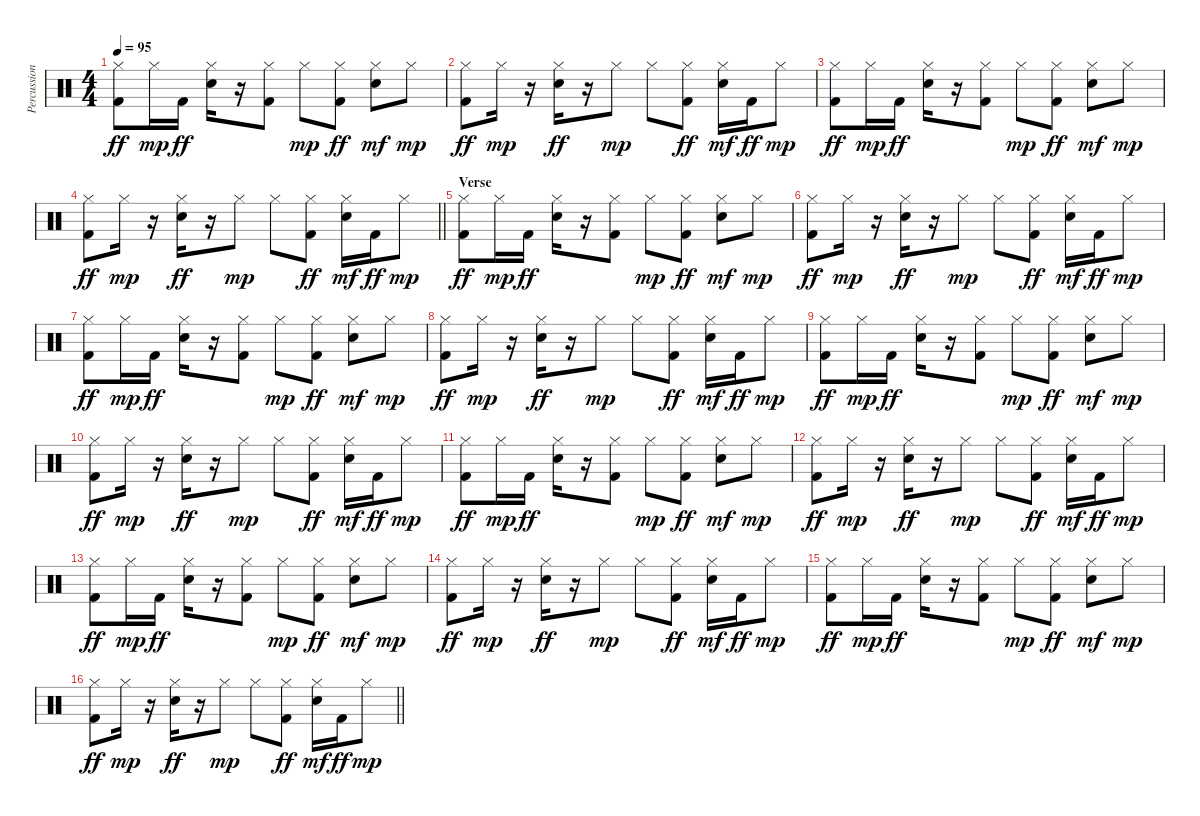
\track ("Percussion" "Percussion") {instrument percussion}
\staff {score}
\articulation defaults
\ts (4 4)
\tempo 95
\clef neutral
\ks c
("Hi-Hat (closed)" "Kick (hit) 2").8{dy ff} "Hi-Hat (closed)".16{dy mp} "Kick (hit) 2".16{dy ff} ("Hi-Hat (closed)" "Snare (hit) 2").16 r.16 ("Hi-Hat (closed)" "Kick (hit) 2").8 "Hi-Hat (closed)".8{dy mp} ("Hi-Hat (closed)" "Kick (hit) 2").8{dy ff} ("Hi-Hat (closed)" "Snare (hit) 2").8{dy mf} "Hi-Hat (closed)".8{dy mp} |
("Hi-Hat (closed)" "Kick (hit) 2").8{dy ff} "Hi-Hat (closed)".16{dy mp} r.16 ("Hi-Hat (closed)" "Snare (hit) 2").16{dy ff} r.16 "Hi-Hat (closed)".8{dy mp} "Hi-Hat (closed)".8 ("Hi-Hat (closed)" "Kick (hit) 2").8{dy ff} ("Hi-Hat (closed)" "Snare (hit) 2").16{dy mf} "Kick (hit) 2".16{dy ff} "Hi-Hat (closed)".8{dy mp} |
("Hi-Hat (closed)" "Kick (hit) 2").8{dy ff} "Hi-Hat (closed)".16{dy mp} "Kick (hit) 2".16{dy ff} ("Hi-Hat (closed)" "Snare (hit) 2").16 r.16 ("Hi-Hat (closed)" "Kick (hit) 2").8 "Hi-Hat (closed)".8{dy mp} ("Hi-Hat (closed)" "Kick (hit) 2").8{dy ff} ("Hi-Hat (closed)" "Snare (hit) 2").8{dy mf} "Hi-Hat (closed)".8{dy mp} |
\barLineRight lightlight
("Hi-Hat (closed)" "Kick (hit) 2").8{dy ff} "Hi-Hat (closed)".16{dy mp} r.16 ("Hi-Hat (closed)" "Snare (hit) 2").16{dy ff} r.16 "Hi-Hat (closed)".8{dy mp} "Hi-Hat (closed)".8 ("Hi-Hat (closed)" "Kick (hit) 2").8{dy ff} ("Hi-Hat (closed)" "Snare (hit) 2").16{dy mf} "Kick (hit) 2".16{dy ff} "Hi-Hat (closed)".8{dy mp} |
\section ("" "Verse")
("Hi-Hat (closed)" "Kick (hit) 2").8{dy ff} "Hi-Hat (closed)".16{dy mp} "Kick (hit) 2".16{dy ff} ("Hi-Hat (closed)" "Snare (hit) 2").16 r.16 ("Hi-Hat (closed)" "Kick (hit) 2").8 "Hi-Hat (closed)".8{dy mp} ("Hi-Hat (closed)" "Kick (hit) 2").8{dy ff} ("Hi-Hat (closed)" "Snare (hit) 2").8{dy mf} "Hi-Hat (closed)".8{dy mp} |
("Hi-Hat (closed)" "Kick (hit) 2").8{dy ff} "Hi-Hat (closed)".16{dy mp} r.16 ("Hi-Hat (closed)" "Snare (hit) 2").16{dy ff} r.16 "Hi-Hat (closed)".8{dy mp} "Hi-Hat (closed)".8 ("Hi-Hat (closed)" "Kick (hit) 2").8{dy ff} ("Hi-Hat (closed)" "Snare (hit) 2").16{dy mf} "Kick (hit) 2".16{dy ff} "Hi-Hat (closed)".8{dy mp} |
("Hi-Hat (closed)" "Kick (hit) 2").8{dy ff} "Hi-Hat (closed)".16{dy mp} "Kick (hit) 2".16{dy ff} ("Hi-Hat (closed)" "Snare (hit) 2").16 r.16 ("Hi-Hat (closed)" "Kick (hit) 2").8 "Hi-Hat (closed)".8{dy mp} ("Hi-Hat (closed)" "Kick (hit) 2").8{dy ff} ("Hi-Hat (closed)" "Snare (hit) 2").8{dy mf} "Hi-Hat (closed)".8{dy mp} |
("Hi-Hat (closed)" "Kick (hit) 2").8{dy ff} "Hi-Hat (closed)".16{dy mp} r.16 ("Hi-Hat (closed)" "Snare (hit) 2").16{dy ff} r.16 "Hi-Hat (closed)".8{dy mp} "Hi-Hat (closed)".8 ("Hi-Hat (closed)" "Kick (hit) 2").8{dy ff} ("Hi-Hat (closed)" "Snare (hit) 2").16{dy mf} "Kick (hit) 2".16{dy ff} "Hi-Hat (closed)".8{dy mp} |
("Hi-Hat (closed)" "Kick (hit) 2").8{dy ff} "Hi-Hat (closed)".16{dy mp} "Kick (hit) 2".16{dy ff} ("Hi-Hat (closed)" "Snare (hit) 2").16 r.16 ("Hi-Hat (closed)" "Kick (hit) 2").8 "Hi-Hat (closed)".8{dy mp} ("Hi-Hat (closed)" "Kick (hit) 2").8{dy ff} ("Hi-Hat (closed)" "Snare (hit) 2").8{dy mf} "Hi-Hat (closed)".8{dy mp} |
("Hi-Hat (closed)" "Kick (hit) 2").8{dy ff} "Hi-Hat (closed)".16{dy mp} r.16 ("Hi-Hat (closed)" "Snare (hit) 2").16{dy ff} r.16 "Hi-Hat (closed)".8{dy mp} "Hi-Hat (closed)".8 ("Hi-Hat (closed)" "Kick (hit) 2").8{dy ff} ("Hi-Hat (closed)" "Snare (hit) 2").16{dy mf} "Kick (hit) 2".16{dy ff} "Hi-Hat (closed)".8{dy mp} |
("Hi-Hat (closed)" "Kick (hit) 2").8{dy ff} "Hi-Hat (closed)".16{dy mp} "Kick (hit) 2".16{dy ff} ("Hi-Hat (closed)" "Snare (hit) 2").16 r.16 ("Hi-Hat (closed)" "Kick (hit) 2").8 "Hi-Hat (closed)".8{dy mp} ("Hi-Hat (closed)" "Kick (hit) 2").8{dy ff} ("Hi-Hat (closed)" "Snare (hit) 2").8{dy mf} "Hi-Hat (closed)".8{dy mp} |
("Hi-Hat (closed)" "Kick (hit) 2").8{dy ff} "Hi-Hat (closed)".16{dy mp} r.16 ("Hi-Hat (closed)" "Snare (hit) 2").16{dy ff} r.16 "Hi-Hat (closed)".8{dy mp} "Hi-Hat (closed)".8 ("Hi-Hat (closed)" "Kick (hit) 2").8{dy ff} ("Hi-Hat (closed)" "Snare (hit) 2").16{dy mf} "Kick (hit) 2".16{dy ff} "Hi-Hat (closed)".8{dy mp} |
("Hi-Hat (closed)" "Kick (hit) 2").8{dy ff} "Hi-Hat (closed)".16{dy mp} "Kick (hit) 2".16{dy ff} ("Hi-Hat (closed)" "Snare (hit) 2").16 r.16 ("Hi-Hat (closed)" "Kick (hit) 2").8 "Hi-Hat (closed)".8{dy mp} ("Hi-Hat (closed)" "Kick (hit) 2").8{dy ff} ("Hi-Hat (closed)" "Snare (hit) 2").8{dy mf} "Hi-Hat (closed)".8{dy mp} |
("Hi-Hat (closed)" "Kick (hit) 2").8{dy ff} "Hi-Hat (closed)".16{dy mp} r.16 ("Hi-Hat (closed)" "Snare (hit) 2").16{dy ff} r.16 "Hi-Hat (closed)".8{dy mp} "Hi-Hat (closed)".8 ("Hi-Hat (closed)" "Kick (hit) 2").8{dy ff} ("Hi-Hat (closed)" "Snare (hit) 2").16{dy mf} "Kick (hit) 2".16{dy ff} "Hi-Hat (closed)".8{dy mp} |
("Hi-Hat (closed)" "Kick (hit) 2").8{dy ff} "Hi-Hat (closed)".16{dy mp} "Kick (hit) 2".16{dy ff} ("Hi-Hat (closed)" "Snare (hit) 2").16 r.16 ("Hi-Hat (closed)" "Kick (hit) 2").8 "Hi-Hat (closed)".8{dy mp} ("Hi-Hat (closed)" "Kick (hit) 2").8{dy ff} ("Hi-Hat (closed)" "Snare (hit) 2").8{dy mf} "Hi-Hat (closed)".8{dy mp} |
\barLineRight lightlight
("Hi-Hat (closed)" "Kick (hit) 2").8{dy ff} "Hi-Hat (closed)".16{dy mp} r.16 ("Hi-Hat (closed)" "Snare (hit) 2").16{dy ff} r.16 "Hi-Hat (closed)".8{dy mp} "Hi-Hat (closed)".8 ("Hi-Hat (closed)" "Kick (hit) 2").8{dy ff} ("Hi-Hat (closed)" "Snare (hit) 2").16{dy mf} "Kick (hit) 2".16{dy ff} "Hi-Hat (closed)".8{dy mp}
